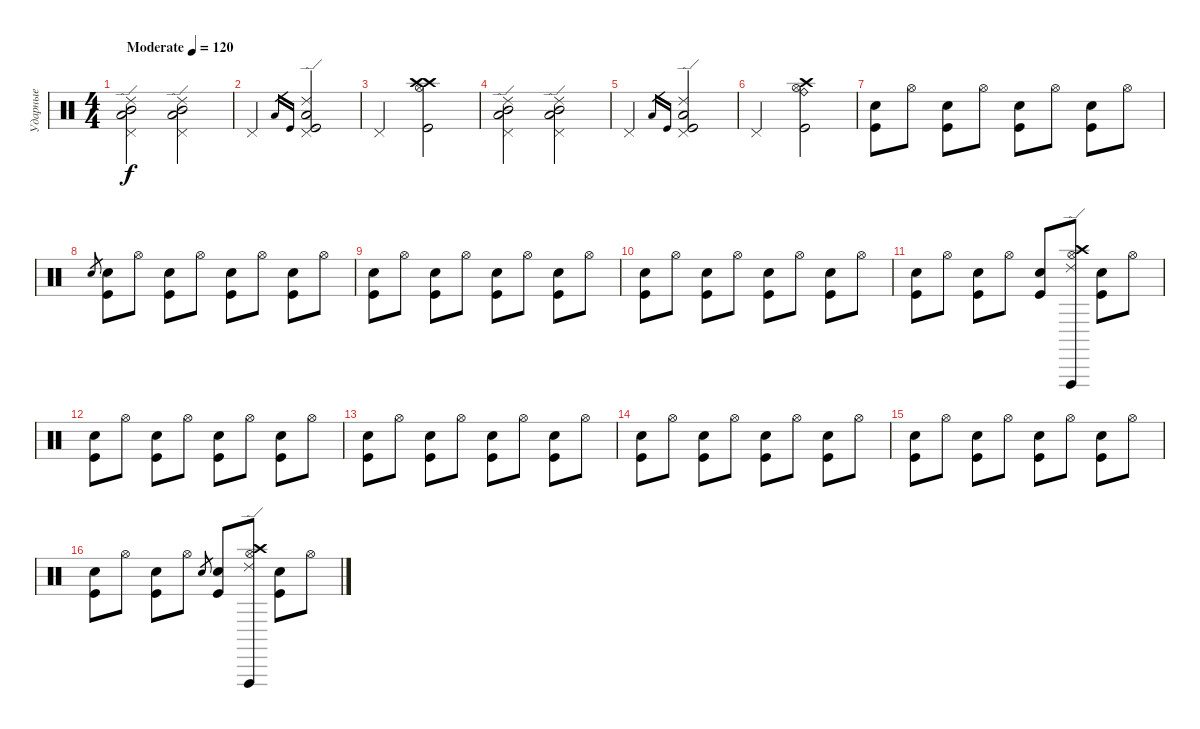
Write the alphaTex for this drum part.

\track ("Ударные" "Ударные") {instrument percussion}
\staff {score}
\articulation defaults
\ts (4 4)
\tempo (120 "Moderate")
\clef neutral
\ks c
("Ride (edge) 2" "Pedal Hi-Hat (hit)" "Low Tom (hit)" "Mid Tom (hit)").2{dy f} ("Ride (edge) 2" "Pedal Hi-Hat (hit)" "Low Tom (hit)" "Mid Tom (hit)").2 |
"Pedal Hi-Hat (hit)".2 "Low Tom (hit)".16{gr} "Kick (hit)".16{gr} ("Ride (edge) 2" "Pedal Hi-Hat (hit)" "Low Tom (hit)" "Kick (hit)").2 |
"Pedal Hi-Hat (hit)".2 ("Crash high (hit)" "Crash high (hit)" "Hi-Hat (open)" "Kick (hit)").2 |
("Ride (edge) 2" "Pedal Hi-Hat (hit)" "Low Tom (hit)" "Mid Tom (hit)").2 ("Ride (edge) 2" "Pedal Hi-Hat (hit)" "Low Tom (hit)" "Mid Tom (hit)").2 |
"Pedal Hi-Hat (hit)".2 "Low Tom (hit)".16{gr} "Kick (hit)".16{gr} ("Ride (edge) 2" "Pedal Hi-Hat (hit)" "Low Tom (hit)" "Kick (hit)").2 |
"Pedal Hi-Hat (hit)".2 ("Ride (bell)" "Crash high (hit)" "Hi-Hat (open)" "Kick (hit)").2 |
("Electric Snare (hit)" "Kick (hit)").8 "Hi-Hat (open)".8 ("Electric Snare (hit)" "Kick (hit)").8 "Hi-Hat (open)".8 ("Electric Snare (hit)" "Kick (hit)").8 "Hi-Hat (open)".8 ("Electric Snare (hit)" "Kick (hit)").8 "Hi-Hat (open)".8 |
"Electric Snare (hit)".8{gr} ("Electric Snare (hit)" "Kick (hit)").8 "Hi-Hat (open)".8 ("Electric Snare (hit)" "Kick (hit)").8 "Hi-Hat (open)".8 ("Electric Snare (hit)" "Kick (hit)").8 "Hi-Hat (open)".8 ("Electric Snare (hit)" "Kick (hit)").8 "Hi-Hat (open)".8 |
("Electric Snare (hit)" "Kick (hit)").8 "Hi-Hat (open)".8 ("Electric Snare (hit)" "Kick (hit)").8 "Hi-Hat (open)".8 ("Electric Snare (hit)" "Kick (hit)").8 "Hi-Hat (open)".8 ("Electric Snare (hit)" "Kick (hit)").8 "Hi-Hat (open)".8 |
("Electric Snare (hit)" "Kick (hit)").8 "Hi-Hat (open)".8 ("Electric Snare (hit)" "Kick (hit)").8 "Hi-Hat (open)".8 ("Electric Snare (hit)" "Kick (hit)").8 "Hi-Hat (open)".8 ("Electric Snare (hit)" "Kick (hit)").8 "Hi-Hat (open)".8 |
("Electric Snare (hit)" "Kick (hit)").8 "Hi-Hat (open)".8 ("Electric Snare (hit)" "Kick (hit)").8 "Hi-Hat (open)".8 ("Electric Snare (hit)" "Kick (hit)").8 ("Vibraslap (hit)" "Crash high (hit)" "Hi-Hat (open)" "Ride (edge) 2").8 ("Electric Snare (hit)" "Kick (hit)").8 "Hi-Hat (open)".8 |
("Electric Snare (hit)" "Kick (hit)").8 "Hi-Hat (open)".8 ("Electric Snare (hit)" "Kick (hit)").8 "Hi-Hat (open)".8 ("Electric Snare (hit)" "Kick (hit)").8 "Hi-Hat (open)".8 ("Electric Snare (hit)" "Kick (hit)").8 "Hi-Hat (open)".8 |
("Electric Snare (hit)" "Kick (hit)").8 "Hi-Hat (open)".8 ("Electric Snare (hit)" "Kick (hit)").8 "Hi-Hat (open)".8 ("Electric Snare (hit)" "Kick (hit)").8 "Hi-Hat (open)".8 ("Electric Snare (hit)" "Kick (hit)").8 "Hi-Hat (open)".8 |
("Electric Snare (hit)" "Kick (hit)").8 "Hi-Hat (open)".8 ("Electric Snare (hit)" "Kick (hit)").8 "Hi-Hat (open)".8 ("Electric Snare (hit)" "Kick (hit)").8 "Hi-Hat (open)".8 ("Electric Snare (hit)" "Kick (hit)").8 "Hi-Hat (open)".8 |
("Electric Snare (hit)" "Kick (hit)").8 "Hi-Hat (open)".8 ("Electric Snare (hit)" "Kick (hit)").8 "Hi-Hat (open)".8 ("Electric Snare (hit)" "Kick (hit)").8 "Hi-Hat (open)".8 ("Electric Snare (hit)" "Kick (hit)").8 "Hi-Hat (open)".8 |
("Electric Snare (hit)" "Kick (hit)").8 "Hi-Hat (open)".8 ("Electric Snare (hit)" "Kick (hit)").8 "Hi-Hat (open)".8 "Electric Snare (hit)".8{gr} ("Electric Snare (hit)" "Kick (hit)").8 ("Vibraslap (hit)" "Crash high (hit)" "Hi-Hat (open)" "Ride (edge) 2").8 ("Electric Snare (hit)" "Kick (hit)").8 "Hi-Hat (open)".8
